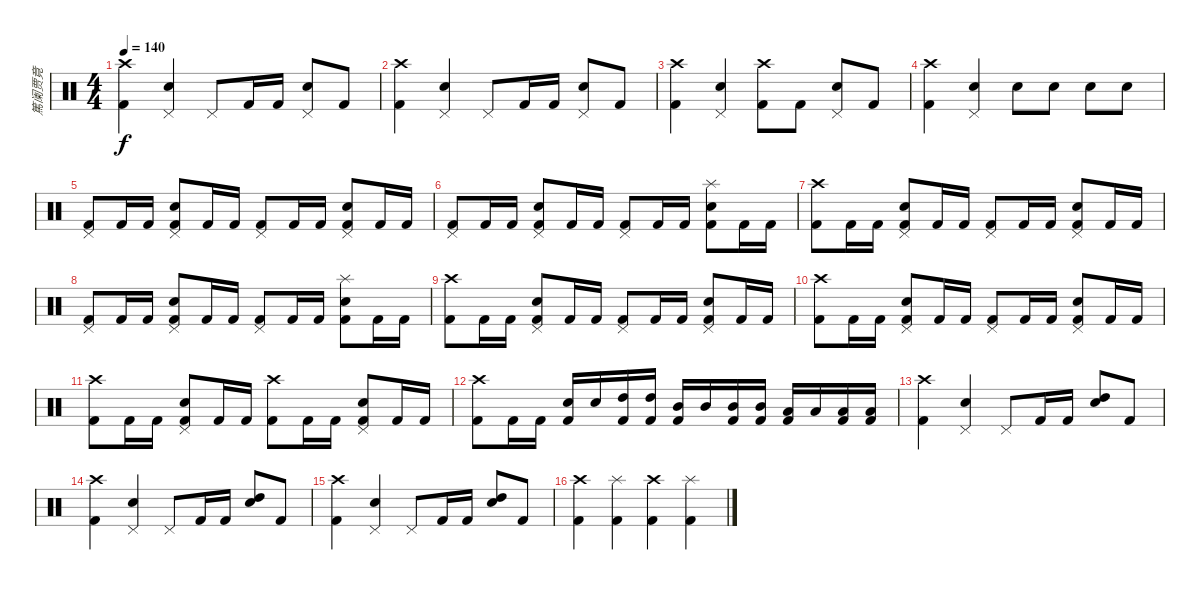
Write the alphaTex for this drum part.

\track ("篤阑贾竟" "篤阑贾竟") {instrument percussion}
\staff {score}
\articulation defaults
\ts (4 4)
\tempo 140
\clef neutral
\ks c
("Crash high (hit)" "Kick (hit) 2").4{dy f} ("Pedal Hi-Hat (hit)" "Snare (hit) 2").4 "Pedal Hi-Hat (hit)".8 "Kick (hit) 2".16 "Kick (hit) 2".16 ("Pedal Hi-Hat (hit)" "Snare (hit) 2").8 "Kick (hit) 2".8 |
("Crash high (hit)" "Kick (hit) 2").4 ("Pedal Hi-Hat (hit)" "Snare (hit) 2").4 "Pedal Hi-Hat (hit)".8 "Kick (hit) 2".16 "Kick (hit) 2".16 ("Pedal Hi-Hat (hit)" "Snare (hit) 2").8 "Kick (hit) 2".8 |
("Crash high (hit)" "Kick (hit) 2").4 ("Pedal Hi-Hat (hit)" "Snare (hit) 2").4 ("Crash high (hit)" "Kick (hit) 2").8 "Kick (hit) 2".8 ("Pedal Hi-Hat (hit)" "Snare (hit) 2").8 "Kick (hit) 2".8 |
("Crash high (hit)" "Kick (hit) 2").4 ("Pedal Hi-Hat (hit)" "Snare (hit) 2").4 "Snare (hit) 2".8 "Snare (hit) 2".8 "Snare (hit) 2".8 "Snare (hit) 2".8 |
("Pedal Hi-Hat (hit)" "Kick (hit) 2").8 "Kick (hit) 2".16 "Kick (hit) 2".16 ("Pedal Hi-Hat (hit)" "Snare (hit) 2" "Kick (hit) 2").8 "Kick (hit) 2".16 "Kick (hit) 2".16 ("Pedal Hi-Hat (hit)" "Kick (hit) 2").8 "Kick (hit) 2".16 "Kick (hit) 2".16 ("Pedal Hi-Hat (hit)" "Snare (hit) 2" "Kick (hit) 2").8 "Kick (hit) 2".16 "Kick (hit) 2".16 |
("Pedal Hi-Hat (hit)" "Kick (hit) 2").8 "Kick (hit) 2".16 "Kick (hit) 2".16 ("Pedal Hi-Hat (hit)" "Snare (hit) 2" "Kick (hit) 2").8 "Kick (hit) 2".16 "Kick (hit) 2".16 ("Pedal Hi-Hat (hit)" "Kick (hit) 2").8 "Kick (hit) 2".16 "Kick (hit) 2".16 ("Splash (hit)" "Snare (hit) 2" "Kick (hit) 2").8 "Kick (hit) 2".16 "Kick (hit) 2".16 |
("Crash high (hit)" "Kick (hit) 2").8 "Kick (hit) 2".16 "Kick (hit) 2".16 ("Pedal Hi-Hat (hit)" "Snare (hit) 2" "Kick (hit) 2").8 "Kick (hit) 2".16 "Kick (hit) 2".16 ("Pedal Hi-Hat (hit)" "Kick (hit) 2").8 "Kick (hit) 2".16 "Kick (hit) 2".16 ("Pedal Hi-Hat (hit)" "Snare (hit) 2" "Kick (hit) 2").8 "Kick (hit) 2".16 "Kick (hit) 2".16 |
("Pedal Hi-Hat (hit)" "Kick (hit) 2").8 "Kick (hit) 2".16 "Kick (hit) 2".16 ("Pedal Hi-Hat (hit)" "Snare (hit) 2" "Kick (hit) 2").8 "Kick (hit) 2".16 "Kick (hit) 2".16 ("Pedal Hi-Hat (hit)" "Kick (hit) 2").8 "Kick (hit) 2".16 "Kick (hit) 2".16 ("Splash (hit)" "Snare (hit) 2" "Kick (hit) 2").8 "Kick (hit) 2".16 "Kick (hit) 2".16 |
("Crash high (hit)" "Kick (hit) 2").8 "Kick (hit) 2".16 "Kick (hit) 2".16 ("Pedal Hi-Hat (hit)" "Snare (hit) 2" "Kick (hit) 2").8 "Kick (hit) 2".16 "Kick (hit) 2".16 ("Pedal Hi-Hat (hit)" "Kick (hit) 2").8 "Kick (hit) 2".16 "Kick (hit) 2".16 ("Pedal Hi-Hat (hit)" "Snare (hit) 2" "Kick (hit) 2").8 "Kick (hit) 2".16 "Kick (hit) 2".16 |
("Crash high (hit)" "Kick (hit) 2").8 "Kick (hit) 2".16 "Kick (hit) 2".16 ("Pedal Hi-Hat (hit)" "Snare (hit) 2" "Kick (hit) 2").8 "Kick (hit) 2".16 "Kick (hit) 2".16 ("Pedal Hi-Hat (hit)" "Kick (hit) 2").8 "Kick (hit) 2".16 "Kick (hit) 2".16 ("Pedal Hi-Hat (hit)" "Snare (hit) 2" "Kick (hit) 2").8 "Kick (hit) 2".16 "Kick (hit) 2".16 |
("Crash high (hit)" "Kick (hit) 2").8 "Kick (hit) 2".16 "Kick (hit) 2".16 ("Pedal Hi-Hat (hit)" "Snare (hit) 2" "Kick (hit) 2").8 "Kick (hit) 2".16 "Kick (hit) 2".16 ("Crash high (hit)" "Kick (hit) 2").8 "Kick (hit) 2".16 "Kick (hit) 2".16 ("Pedal Hi-Hat (hit)" "Snare (hit) 2" "Kick (hit) 2").8 "Kick (hit) 2".16 "Kick (hit) 2".16 |
("Crash high (hit)" "Kick (hit) 2").8 "Kick (hit) 2".16 "Kick (hit) 2".16 ("Snare (hit) 2" "Kick (hit) 2").16 "Snare (hit) 2".16 ("High Tom (hit)" "Kick (hit) 2").16 ("High Tom (hit)" "Kick (hit) 2").16 ("Mid Tom (hit)" "Kick (hit) 2").16 "Mid Tom (hit)".16 ("Mid Tom (hit)" "Kick (hit) 2").16 ("Mid Tom (hit)" "Kick (hit) 2").16 ("Low Floor Tom (hit)" "Kick (hit) 2").16 "Low Floor Tom (hit)".16 ("Low Floor Tom (hit)" "Kick (hit) 2").16 ("Low Floor Tom (hit)" "Kick (hit) 2").16 |
("Crash high (hit)" "Kick (hit) 2").4 ("Pedal Hi-Hat (hit)" "Snare (hit) 2").4 "Pedal Hi-Hat (hit)".8 "Kick (hit) 2".16 "Kick (hit) 2".16 ("High Tom (hit)" "Snare (hit) 2").8 "Kick (hit) 2".8 |
("Crash high (hit)" "Kick (hit) 2").4 ("Pedal Hi-Hat (hit)" "Snare (hit) 2").4 "Pedal Hi-Hat (hit)".8 "Kick (hit) 2".16 "Kick (hit) 2".16 ("High Tom (hit)" "Snare (hit) 2").8 "Kick (hit) 2".8 |
("Crash high (hit)" "Kick (hit) 2").4 ("Pedal Hi-Hat (hit)" "Snare (hit) 2").4 "Pedal Hi-Hat (hit)".8 "Kick (hit) 2".16 "Kick (hit) 2".16 ("High Tom (hit)" "Snare (hit) 2").8 "Kick (hit) 2".8 |
("Crash high (hit)" "Kick (hit) 2").4 ("Splash (hit)" "Kick (hit) 2").4 ("Crash high (hit)" "Kick (hit) 2").4 ("Splash (hit)" "Kick (hit) 2").4
